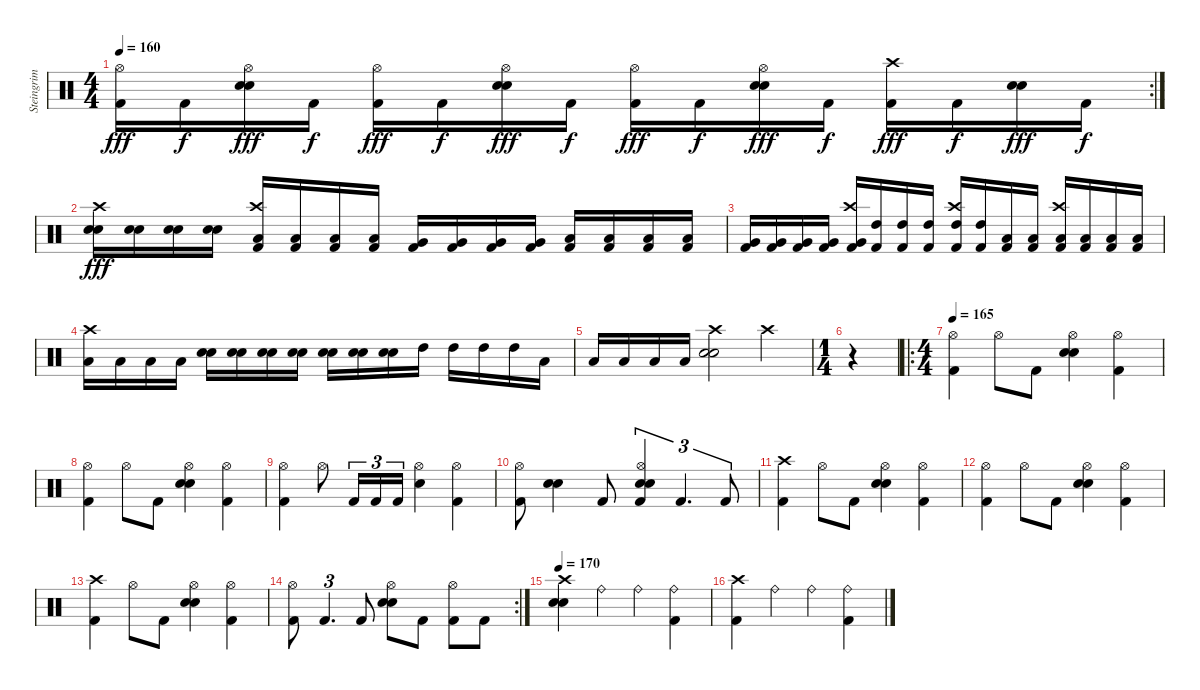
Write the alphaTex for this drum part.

\track ("Steingrim" "Steingrim") {instrument percussion}
\staff {score}
\articulation defaults
\rc 2
\ts (4 4)
\tempo 160
\clef neutral
\ks c
("Kick (hit) 2" "Hi-Hat (open)").16{dy fff} "Kick (hit) 2".16{dy f} ("Snare (hit) 2" "Electric Snare (hit)" "Hi-Hat (open)").16{dy fff} "Kick (hit) 2".16{dy f} ("Kick (hit) 2" "Hi-Hat (open)").16{dy fff} "Kick (hit) 2".16{dy f} ("Snare (hit) 2" "Electric Snare (hit)" "Hi-Hat (open)").16{dy fff} "Kick (hit) 2".16{dy f} ("Kick (hit) 2" "Hi-Hat (open)").16{dy fff} "Kick (hit) 2".16{dy f} ("Snare (hit) 2" "Electric Snare (hit)" "Hi-Hat (open)").16{dy fff} "Kick (hit) 2".16{dy f} ("Kick (hit) 2" "Crash high (hit)").16{dy fff} "Kick (hit) 2".16{dy f} ("Snare (hit) 2" "Electric Snare (hit)").16{dy fff} "Kick (hit) 2".16{dy f} |
("Snare (hit) 2" "Electric Snare (hit)" "Crash high (hit)").16{dy fff} ("Snare (hit) 2" "Electric Snare (hit)").16 ("Snare (hit) 2" "Electric Snare (hit)").16 ("Snare (hit) 2" "Electric Snare (hit)").16 ("Low Tom (hit)" "Kick (hit) 2" "Crash high (hit)").16 ("Low Tom (hit)" "Kick (hit) 2").16 ("Low Tom (hit)" "Kick (hit) 2").16 ("Low Tom (hit)" "Kick (hit) 2").16 ("Very Low Tom (hit)" "Kick (hit) 2").16 ("Very Low Tom (hit)" "Kick (hit) 2").16 ("Very Low Tom (hit)" "Kick (hit) 2").16 ("Very Low Tom (hit)" "Kick (hit) 2").16 ("Low Floor Tom (hit)" "Kick (hit) 2").16 ("Low Floor Tom (hit)" "Kick (hit) 2").16 ("Low Floor Tom (hit)" "Kick (hit) 2").16 ("Low Floor Tom (hit)" "Kick (hit) 2").16 |
("Very Low Tom (hit)" "Kick (hit) 2").16 ("Very Low Tom (hit)" "Kick (hit) 2").16 ("Very Low Tom (hit)" "Kick (hit) 2").16 ("Very Low Tom (hit)" "Kick (hit) 2").16 ("Very Low Tom (hit)" "Crash high (hit)" "Kick (hit) 2").16 ("High Tom (hit)" "Kick (hit) 2").16 ("High Tom (hit)" "Kick (hit) 2").16 ("High Tom (hit)" "Kick (hit) 2").16 ("High Tom (hit)" "Crash high (hit)" "Kick (hit) 2").16 ("High Tom (hit)" "Kick (hit) 2").16 ("Low Tom (hit)" "Kick (hit) 2").16 ("Low Tom (hit)" "Kick (hit) 2").16 ("Low Tom (hit)" "Kick (hit) 2" "Crash high (hit)").16 ("Low Tom (hit)" "Kick (hit) 2").16 ("Low Tom (hit)" "Kick (hit) 2").16 ("Low Tom (hit)" "Kick (hit) 2").16 |
("Low Tom (hit)" "Crash high (hit)").16 "Low Tom (hit)".16 "Low Tom (hit)".16 "Low Tom (hit)".16 ("Electric Snare (hit)" "Snare (hit) 2").16 ("Electric Snare (hit)" "Snare (hit) 2").16 ("Electric Snare (hit)" "Snare (hit) 2").16 ("Electric Snare (hit)" "Snare (hit) 2").16 ("Electric Snare (hit)" "Snare (hit) 2").16 ("Electric Snare (hit)" "Snare (hit) 2").16 ("Snare (hit) 2" "Electric Snare (hit)").16 "High Tom (hit)".16 "High Tom (hit)".16 "High Tom (hit)".16 "High Tom (hit)".16 "Low Tom (hit)".16 |
"Low Tom (hit)".16 "Low Tom (hit)".16 "Low Tom (hit)".16 "Low Tom (hit)".16 ("Snare (hit) 2" "Electric Snare (hit)" "Crash high (hit)").2 "Crash high (hit)".4 |
\ts (1 4)
r.4 |
\ro
\ts (4 4)
\tempo 165
("Kick (hit) 2" "Hi-Hat (open)").4 "Hi-Hat (open)".8 "Kick (hit) 2".8 ("Electric Snare (hit)" "Snare (hit) 2" "Hi-Hat (open)").4 ("Kick (hit) 2" "Hi-Hat (open)").4 |
("Kick (hit) 2" "Hi-Hat (open)").4 "Hi-Hat (open)".8 "Kick (hit) 2".8 ("Electric Snare (hit)" "Snare (hit) 2" "Hi-Hat (open)").4 ("Kick (hit) 2" "Hi-Hat (open)").4 |
("Kick (hit) 2" "Hi-Hat (open)").4 "Hi-Hat (open)".8 "Kick (hit) 2".16{tu (3 2)} "Kick (hit) 2".16{tu (3 2)} "Kick (hit) 2".16{tu (3 2)} ("Snare (hit) 2" "Hi-Hat (open)").4 ("Kick (hit) 2" "Hi-Hat (open)").4 |
("Kick (hit) 2" "Hi-Hat (open)").8 ("Electric Snare (hit)" "Snare (hit) 2").4 "Kick (hit) 2".8 ("Electric Snare (hit)" "Kick (hit) 2" "Snare (hit) 2" "Hi-Hat (open)").4{tu (3 2)} "Kick (hit) 2".4{d tu (3 2)} "Kick (hit) 2".8{tu (3 2)} |
("Kick (hit) 2" "Crash high (hit)").4 "Hi-Hat (open)".8 "Kick (hit) 2".8 ("Electric Snare (hit)" "Snare (hit) 2" "Hi-Hat (open)").4 ("Kick (hit) 2" "Hi-Hat (open)").4 |
("Kick (hit) 2" "Hi-Hat (open)").4 "Hi-Hat (open)".8 "Kick (hit) 2".8 ("Electric Snare (hit)" "Snare (hit) 2" "Hi-Hat (open)").4 ("Kick (hit) 2" "Hi-Hat (open)").4 |
("Kick (hit) 2" "Crash high (hit)").4 "Hi-Hat (open)".8 "Kick (hit) 2".8 ("Electric Snare (hit)" "Snare (hit) 2" "Hi-Hat (open)").4 ("Kick (hit) 2" "Hi-Hat (open)").4 |
\rc 2
("Kick (hit) 2" "Hi-Hat (open)").8 "Kick (hit) 2".4{d tu (3 2)} "Kick (hit) 2".8 ("Electric Snare (hit)" "Snare (hit) 2" "Hi-Hat (open)").8 "Kick (hit) 2".8 ("Kick (hit) 2" "Hi-Hat (open)").8 "Kick (hit) 2".8 |
\tempo 170
("Snare (hit) 2" "Electric Snare (hit)" "Crash high (hit)").4 "Ride (bell)".4 "Ride (bell)".4 ("Ride (bell)" "Kick (hit) 2").4 |
("Kick (hit) 2" "Crash high (hit)").4 "Ride (bell)".4 "Ride (bell)".4 ("Kick (hit) 2" "Ride (bell)").4
